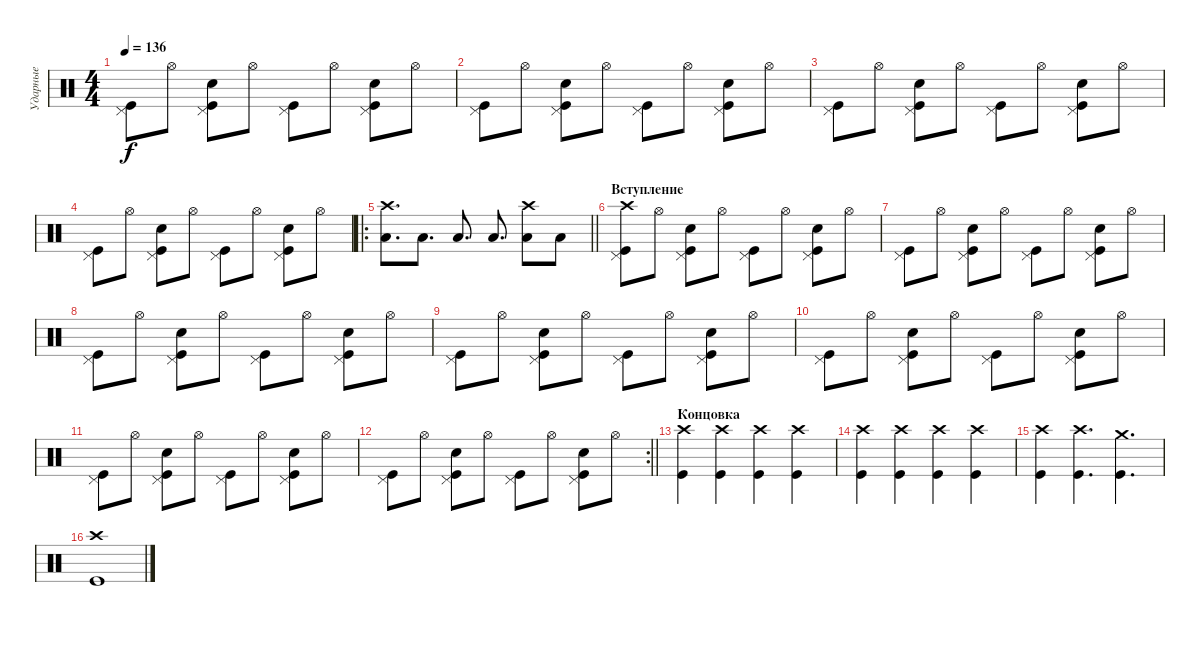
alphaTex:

\track ("Ударные" "Ударные") {instrument percussion}
\staff {score}
\articulation defaults
\ts (4 4)
\tempo 136
\clef neutral
\ks c
("Kick (hit)" "Pedal Hi-Hat (hit)").8{dy f} "Hi-Hat (open)".8 ("Kick (hit)" "Hand Clap (hit)" "Pedal Hi-Hat (hit)").8 "Hi-Hat (open)".8 ("Kick (hit)" "Pedal Hi-Hat (hit)").8 "Hi-Hat (open)".8 ("Kick (hit)" "Hand Clap (hit)" "Pedal Hi-Hat (hit)").8 "Hi-Hat (open)".8 |
("Kick (hit)" "Pedal Hi-Hat (hit)").8 "Hi-Hat (open)".8 ("Kick (hit)" "Hand Clap (hit)" "Pedal Hi-Hat (hit)").8 "Hi-Hat (open)".8 ("Kick (hit)" "Pedal Hi-Hat (hit)").8 "Hi-Hat (open)".8 ("Kick (hit)" "Hand Clap (hit)" "Pedal Hi-Hat (hit)").8 "Hi-Hat (open)".8 |
("Kick (hit)" "Pedal Hi-Hat (hit)").8 "Hi-Hat (open)".8 ("Kick (hit)" "Hand Clap (hit)" "Pedal Hi-Hat (hit)").8 "Hi-Hat (open)".8 ("Kick (hit)" "Pedal Hi-Hat (hit)").8 "Hi-Hat (open)".8 ("Kick (hit)" "Hand Clap (hit)" "Pedal Hi-Hat (hit)").8 "Hi-Hat (open)".8 |
("Kick (hit)" "Pedal Hi-Hat (hit)").8 "Hi-Hat (open)".8 ("Kick (hit)" "Hand Clap (hit)" "Pedal Hi-Hat (hit)").8 "Hi-Hat (open)".8 ("Kick (hit)" "Pedal Hi-Hat (hit)").8 "Hi-Hat (open)".8 ("Kick (hit)" "Hand Clap (hit)" "Pedal Hi-Hat (hit)").8 "Hi-Hat (open)".8 |
\ro
\barLineRight lightlight
("Low Tom (hit)" "Crash high (hit)").8{d} "Low Tom (hit)".8{d} "Low Tom (hit)".8{d} "Low Tom (hit)".8{d} ("Low Tom (hit)" "Crash high (hit)").8 "Low Tom (hit)".8 |
\section ("" "Вступление")
("Kick (hit)" "Crash high (hit)" "Pedal Hi-Hat (hit)").8 "Hi-Hat (open)".8 ("Kick (hit)" "Hand Clap (hit)" "Pedal Hi-Hat (hit)").8 "Hi-Hat (open)".8 ("Kick (hit)" "Pedal Hi-Hat (hit)").8 "Hi-Hat (open)".8 ("Kick (hit)" "Hand Clap (hit)" "Pedal Hi-Hat (hit)").8 "Hi-Hat (open)".8 |
("Kick (hit)" "Pedal Hi-Hat (hit)").8 "Hi-Hat (open)".8 ("Kick (hit)" "Hand Clap (hit)" "Pedal Hi-Hat (hit)").8 "Hi-Hat (open)".8 ("Kick (hit)" "Pedal Hi-Hat (hit)").8 "Hi-Hat (open)".8 ("Kick (hit)" "Hand Clap (hit)" "Pedal Hi-Hat (hit)").8 "Hi-Hat (open)".8 |
("Kick (hit)" "Pedal Hi-Hat (hit)").8 "Hi-Hat (open)".8 ("Kick (hit)" "Hand Clap (hit)" "Pedal Hi-Hat (hit)").8 "Hi-Hat (open)".8 ("Kick (hit)" "Pedal Hi-Hat (hit)").8 "Hi-Hat (open)".8 ("Kick (hit)" "Hand Clap (hit)" "Pedal Hi-Hat (hit)").8 "Hi-Hat (open)".8 |
("Kick (hit)" "Pedal Hi-Hat (hit)").8 "Hi-Hat (open)".8 ("Kick (hit)" "Hand Clap (hit)" "Pedal Hi-Hat (hit)").8 "Hi-Hat (open)".8 ("Kick (hit)" "Pedal Hi-Hat (hit)").8 "Hi-Hat (open)".8 ("Kick (hit)" "Hand Clap (hit)" "Pedal Hi-Hat (hit)").8 "Hi-Hat (open)".8 |
("Kick (hit)" "Pedal Hi-Hat (hit)").8 "Hi-Hat (open)".8 ("Kick (hit)" "Hand Clap (hit)" "Pedal Hi-Hat (hit)").8 "Hi-Hat (open)".8 ("Kick (hit)" "Pedal Hi-Hat (hit)").8 "Hi-Hat (open)".8 ("Kick (hit)" "Hand Clap (hit)" "Pedal Hi-Hat (hit)").8 "Hi-Hat (open)".8 |
("Kick (hit)" "Pedal Hi-Hat (hit)").8 "Hi-Hat (open)".8 ("Kick (hit)" "Hand Clap (hit)" "Pedal Hi-Hat (hit)").8 "Hi-Hat (open)".8 ("Kick (hit)" "Pedal Hi-Hat (hit)").8 "Hi-Hat (open)".8 ("Kick (hit)" "Hand Clap (hit)" "Pedal Hi-Hat (hit)").8 "Hi-Hat (open)".8 |
\rc 2
\barLineRight lightlight
("Kick (hit)" "Pedal Hi-Hat (hit)").8 "Hi-Hat (open)".8 ("Kick (hit)" "Hand Clap (hit)" "Pedal Hi-Hat (hit)").8 "Hi-Hat (open)".8 ("Kick (hit)" "Pedal Hi-Hat (hit)").8 "Hi-Hat (open)".8 ("Kick (hit)" "Hand Clap (hit)" "Pedal Hi-Hat (hit)").8 "Hi-Hat (open)".8 |
\section ("" "Концовка")
("Kick (hit)" "Crash high (hit)").4 ("Kick (hit)" "Crash high (hit)").4 ("Kick (hit)" "Crash high (hit)").4 ("Kick (hit)" "Crash high (hit)").4 |
("Kick (hit)" "Crash high (hit)").4 ("Kick (hit)" "Crash high (hit)").4 ("Kick (hit)" "Crash high (hit)").4 ("Kick (hit)" "Crash high (hit)").4 |
("Kick (hit)" "Crash high (hit)").4 ("Kick (hit)" "Crash high (hit)").4{d} ("Kick (hit)" "Crash medium (hit)").4{d} |
("Kick (hit)" "Crash high (hit)").1
